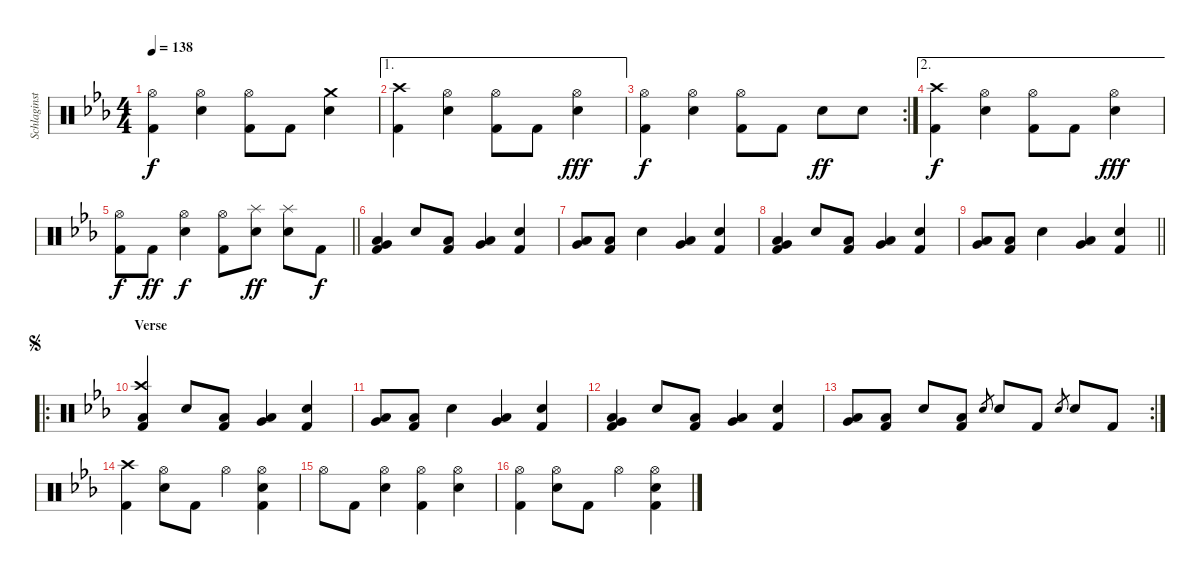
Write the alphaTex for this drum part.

\track ("Schlaginstrumente - Auswahl" "Schlaginst") {instrument percussion}
\staff {score}
\articulation defaults
\ts (4 4)
\tempo 138
\clef neutral
\ks eb
("Hi-Hat (open)" "Kick (hit) 2").4{dy f} ("Hi-Hat (open)" "Electric Snare (hit)").4 ("Hi-Hat (open)" "Kick (hit) 2").8 "Kick (hit) 2".8 ("Crash medium (hit)" "Electric Snare (hit)").4 |
\ae 1
("Crash high (hit)" "Kick (hit) 2").4 ("Hi-Hat (open)" "Electric Snare (hit)").4 ("Hi-Hat (open)" "Kick (hit) 2").8 "Kick (hit) 2".8 ("Hi-Hat (open)" "Electric Snare (hit)").4{dy fff} |
\rc 2
("Hi-Hat (open)" "Kick (hit) 2").4{dy f} ("Hi-Hat (open)" "Electric Snare (hit)").4 ("Hi-Hat (open)" "Kick (hit) 2").8 "Kick (hit) 2".8 "Electric Snare (hit)".8{dy ff} "Electric Snare (hit)".8 |
\ae 2
("Crash high (hit)" "Kick (hit) 2").4{dy f} ("Hi-Hat (open)" "Electric Snare (hit)").4 ("Hi-Hat (open)" "Kick (hit) 2").8 "Kick (hit) 2".8 ("Hi-Hat (open)" "Electric Snare (hit)").4{dy fff} |
\barLineRight lightlight
("Hi-Hat (open)" "Kick (hit) 2").8{dy f} "Kick (hit) 2".8{dy ff} ("Hi-Hat (open)" "Electric Snare (hit)").4{dy f} ("Hi-Hat (open)" "Kick (hit) 2").8 ("Splash (hit)" "Electric Snare (hit)").8{dy ff} ("Splash (hit)" "Electric Snare (hit)").8 "Kick (hit) 2".8{dy f} |
("Very Low Tom (hit)" "Low Floor Tom (hit)" "Kick (hit) 2").4 "Electric Snare (hit)".8 ("Low Floor Tom (hit)" "Kick (hit) 2").8 ("Low Tom (hit)" "Very Low Tom (hit)").4 ("Electric Snare (hit)" "Kick (hit) 2").4 |
("Low Tom (hit)" "Very Low Tom (hit)").8 ("Low Floor Tom (hit)" "Kick (hit) 2").8 "Electric Snare (hit)".4 ("Very Low Tom (hit)" "Low Floor Tom (hit)").4 ("Electric Snare (hit)" "Kick (hit) 2").4 |
("Very Low Tom (hit)" "Low Floor Tom (hit)" "Kick (hit) 2").4 "Electric Snare (hit)".8 ("Low Floor Tom (hit)" "Kick (hit) 2").8 ("Low Tom (hit)" "Very Low Tom (hit)").4 ("Electric Snare (hit)" "Kick (hit) 2").4 |
\barLineRight lightlight
("Low Tom (hit)" "Very Low Tom (hit)").8 ("Low Floor Tom (hit)" "Kick (hit) 2").8 "Electric Snare (hit)".4 ("Very Low Tom (hit)" "Low Floor Tom (hit)").4 ("Electric Snare (hit)" "Kick (hit) 2").4 |
\ro
\section ("" "Verse")
\jump segno
("Crash high (hit)" "Low Floor Tom (hit)" "Kick (hit) 2").4 "Electric Snare (hit)".8 ("Low Floor Tom (hit)" "Kick (hit) 2").8 ("Low Tom (hit)" "Very Low Tom (hit)").4 ("Electric Snare (hit)" "Kick (hit) 2").4 |
("Low Tom (hit)" "Very Low Tom (hit)").8 ("Low Floor Tom (hit)" "Kick (hit) 2").8 "Electric Snare (hit)".4 ("Very Low Tom (hit)" "Low Floor Tom (hit)").4 ("Electric Snare (hit)" "Kick (hit) 2").4 |
("Very Low Tom (hit)" "Low Floor Tom (hit)" "Kick (hit) 2").4 "Electric Snare (hit)".8 ("Low Floor Tom (hit)" "Kick (hit) 2").8 ("Low Tom (hit)" "Very Low Tom (hit)").4 ("Electric Snare (hit)" "Kick (hit) 2").4 |
\rc 2
("Low Tom (hit)" "Very Low Tom (hit)").8 ("Low Floor Tom (hit)" "Kick (hit) 2").8 "Electric Snare (hit)".8 ("Low Floor Tom (hit)" "Kick (hit) 2").8 "Electric Snare (hit)".8{gr} "Electric Snare (hit)".8 "Kick (hit) 2".8 "Electric Snare (hit)".8{gr} "Electric Snare (hit)".8 "Kick (hit) 2".8 |
("Crash high (hit)" "Kick (hit) 2").4 ("Hi-Hat (open)" "Electric Snare (hit)").8 "Kick (hit) 2".8 "Hi-Hat (open)".4 ("Hi-Hat (open)" "Electric Snare (hit)" "Kick (hit) 2").4 |
"Hi-Hat (open)".8 "Kick (hit) 2".8 ("Hi-Hat (open)" "Electric Snare (hit)").4 ("Hi-Hat (open)" "Kick (hit) 2").4 ("Hi-Hat (open)" "Electric Snare (hit)").4 |
("Hi-Hat (open)" "Kick (hit) 2").4 ("Hi-Hat (open)" "Electric Snare (hit)").8 "Kick (hit) 2".8 "Hi-Hat (open)".4 ("Hi-Hat (open)" "Electric Snare (hit)" "Kick (hit) 2").4
